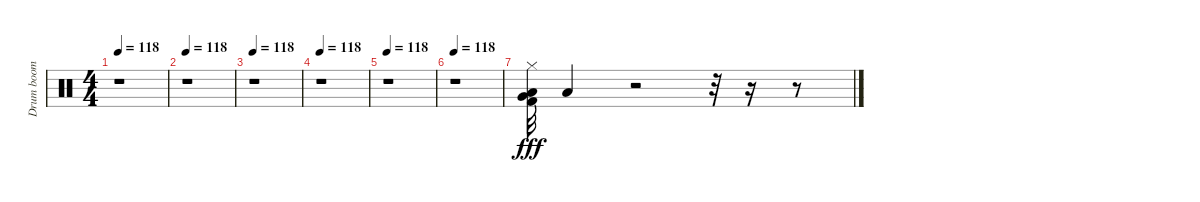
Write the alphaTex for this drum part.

\track ("Drum boom" "Drum boom") {instrument percussion}
\staff {score}
\articulation defaults
\ts (4 4)
\tempo 118
\clef neutral
\ks c
r.1{dy fff} |
\tempo 118
r.1 |
\tempo 118
r.1 |
\tempo 118
r.1 |
\tempo 118
r.1 |
\tempo 118
r.1 |
("Low Tom (hit)" "Kick (hit) 2" "Very Low Tom (hit)" "Hi-Hat (closed)").32{balance 8} "Low Floor Tom (hit)".4 r.2 r.32 r.16 r.8
